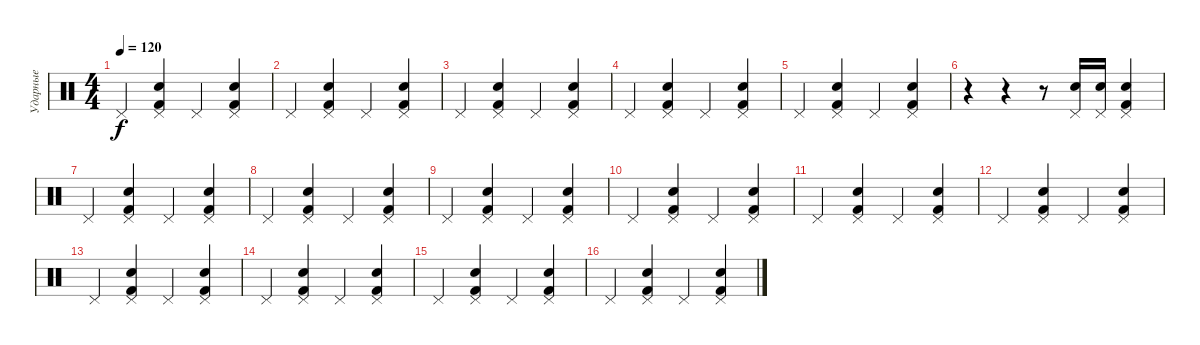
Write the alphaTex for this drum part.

\track ("Ударные" "Ударные") {instrument percussion}
\staff {score}
\articulation defaults
\ts (4 4)
\tempo 120
\clef neutral
\ks c "Pedal Hi-Hat (hit)".4{dy f}
("Electric Snare (hit)" "Pedal Hi-Hat (hit)" "Kick (hit) 2").4 "Pedal Hi-Hat (hit)".4 ("Electric Snare (hit)" "Pedal Hi-Hat (hit)" "Kick (hit) 2").4 |
"Pedal Hi-Hat (hit)".4 ("Electric Snare (hit)" "Pedal Hi-Hat (hit)" "Kick (hit) 2").4 "Pedal Hi-Hat (hit)".4 ("Electric Snare (hit)" "Pedal Hi-Hat (hit)" "Kick (hit) 2").4 |
"Pedal Hi-Hat (hit)".4 ("Electric Snare (hit)" "Pedal Hi-Hat (hit)" "Kick (hit) 2").4 "Pedal Hi-Hat (hit)".4 ("Electric Snare (hit)" "Pedal Hi-Hat (hit)" "Kick (hit) 2").4 |
"Pedal Hi-Hat (hit)".4 ("Electric Snare (hit)" "Pedal Hi-Hat (hit)" "Kick (hit) 2").4 "Pedal Hi-Hat (hit)".4 ("Electric Snare (hit)" "Pedal Hi-Hat (hit)" "Kick (hit) 2").4 |
"Pedal Hi-Hat (hit)".4 ("Electric Snare (hit)" "Pedal Hi-Hat (hit)" "Kick (hit) 2").4 "Pedal Hi-Hat (hit)".4 ("Electric Snare (hit)" "Pedal Hi-Hat (hit)" "Kick (hit) 2").4 |
r.4 r.4 r.8 ("Electric Snare (hit)" "Pedal Hi-Hat (hit)").16 ("Electric Snare (hit)" "Pedal Hi-Hat (hit)").16 ("Electric Snare (hit)" "Pedal Hi-Hat (hit)" "Kick (hit) 2").4 |
"Pedal Hi-Hat (hit)".4 ("Electric Snare (hit)" "Pedal Hi-Hat (hit)" "Kick (hit) 2").4 "Pedal Hi-Hat (hit)".4 ("Electric Snare (hit)" "Pedal Hi-Hat (hit)" "Kick (hit) 2").4 |
"Pedal Hi-Hat (hit)".4 ("Electric Snare (hit)" "Pedal Hi-Hat (hit)" "Kick (hit) 2").4 "Pedal Hi-Hat (hit)".4 ("Electric Snare (hit)" "Pedal Hi-Hat (hit)" "Kick (hit) 2").4 |
"Pedal Hi-Hat (hit)".4 ("Electric Snare (hit)" "Pedal Hi-Hat (hit)" "Kick (hit) 2").4 "Pedal Hi-Hat (hit)".4 ("Electric Snare (hit)" "Pedal Hi-Hat (hit)" "Kick (hit) 2").4 |
"Pedal Hi-Hat (hit)".4 ("Electric Snare (hit)" "Pedal Hi-Hat (hit)" "Kick (hit) 2").4 "Pedal Hi-Hat (hit)".4 ("Electric Snare (hit)" "Pedal Hi-Hat (hit)" "Kick (hit) 2").4 |
"Pedal Hi-Hat (hit)".4 ("Electric Snare (hit)" "Pedal Hi-Hat (hit)" "Kick (hit) 2").4 "Pedal Hi-Hat (hit)".4 ("Electric Snare (hit)" "Pedal Hi-Hat (hit)" "Kick (hit) 2").4 |
"Pedal Hi-Hat (hit)".4 ("Electric Snare (hit)" "Pedal Hi-Hat (hit)" "Kick (hit) 2").4 "Pedal Hi-Hat (hit)".4 ("Electric Snare (hit)" "Pedal Hi-Hat (hit)" "Kick (hit) 2").4 |
"Pedal Hi-Hat (hit)".4 ("Electric Snare (hit)" "Pedal Hi-Hat (hit)" "Kick (hit) 2").4 "Pedal Hi-Hat (hit)".4 ("Electric Snare (hit)" "Pedal Hi-Hat (hit)" "Kick (hit) 2").4 |
"Pedal Hi-Hat (hit)".4 ("Electric Snare (hit)" "Pedal Hi-Hat (hit)" "Kick (hit) 2").4 "Pedal Hi-Hat (hit)".4 ("Electric Snare (hit)" "Pedal Hi-Hat (hit)" "Kick (hit) 2").4 |
"Pedal Hi-Hat (hit)".4 ("Electric Snare (hit)" "Pedal Hi-Hat (hit)" "Kick (hit) 2").4 "Pedal Hi-Hat (hit)".4 ("Electric Snare (hit)" "Pedal Hi-Hat (hit)" "Kick (hit) 2").4 |
"Pedal Hi-Hat (hit)".4 ("Electric Snare (hit)" "Pedal Hi-Hat (hit)" "Kick (hit) 2").4 "Pedal Hi-Hat (hit)".4 ("Electric Snare (hit)" "Pedal Hi-Hat (hit)" "Kick (hit) 2").4
